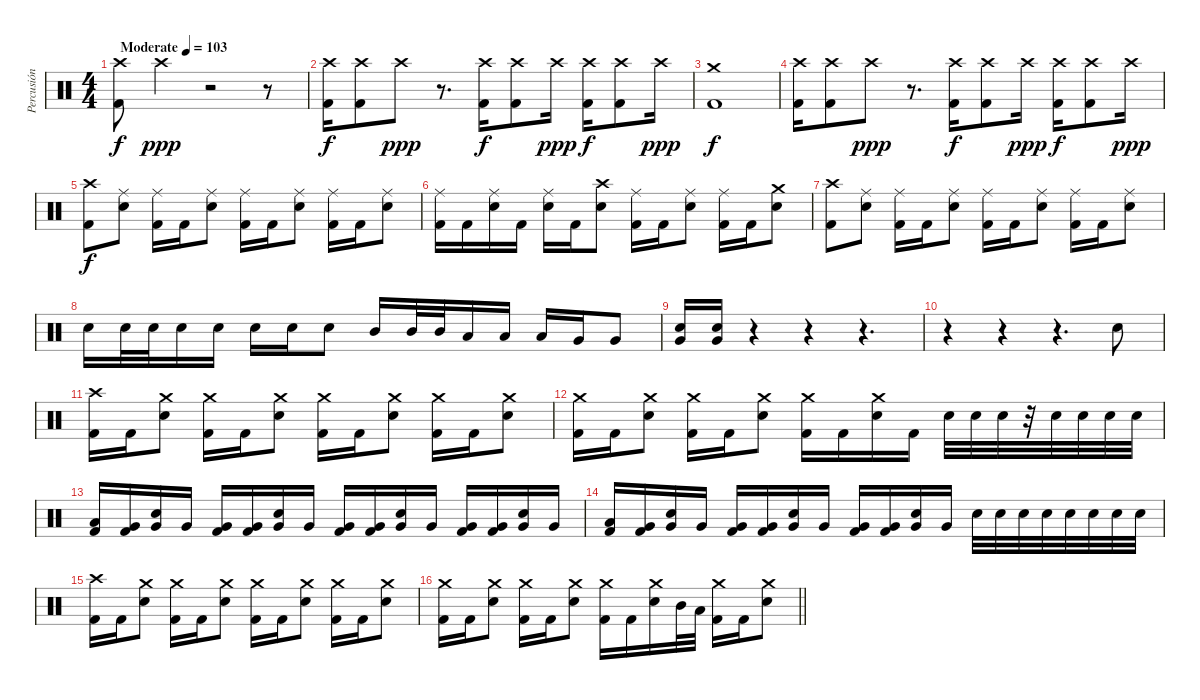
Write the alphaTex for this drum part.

\track ("Percusión" "Percusión") {instrument percussion}
\staff {score}
\articulation defaults
\ts (4 4)
\tempo (103 "Moderate")
\clef neutral
\ks c
("Crash high (hit)" "Kick (hit) 2").8{dy f} "Crash high (hit)".4{dy ppp} r.2 r.8 |
("Crash high (hit)" "Kick (hit) 2").16{dy f} ("Crash high (hit)" "Kick (hit) 2").8 "Crash high (hit)".8{dy ppp} r.8{d} ("Crash high (hit)" "Kick (hit) 2").16{dy f} ("Crash high (hit)" "Kick (hit) 2").8 "Crash high (hit)".16{dy ppp} ("Crash high (hit)" "Kick (hit) 2").16{dy f} ("Crash high (hit)" "Kick (hit) 2").8 "Crash high (hit)".16{dy ppp} |
("Crash medium (hit)" "Kick (hit) 2").1{dy f} |
("Crash high (hit)" "Kick (hit) 2").16 ("Crash high (hit)" "Kick (hit) 2").8 "Crash high (hit)".8{dy ppp} r.8{d} ("Crash high (hit)" "Kick (hit) 2").16{dy f} ("Crash high (hit)" "Kick (hit) 2").8 "Crash high (hit)".16{dy ppp} ("Crash high (hit)" "Kick (hit) 2").16{dy f} ("Crash high (hit)" "Kick (hit) 2").8 "Crash high (hit)".16{dy ppp} |
("Crash high (hit)" "Kick (hit) 2").8{dy f} ("Ride (middle)" "Snare (hit) 2").8 ("Ride (middle)" "Kick (hit) 2").16 "Kick (hit) 2".16 ("Ride (middle)" "Snare (hit) 2").8 ("Ride (middle)" "Kick (hit) 2").16 "Kick (hit) 2".16 ("Ride (middle)" "Snare (hit) 2").8 ("Ride (middle)" "Kick (hit) 2").16 "Kick (hit) 2".16 ("Ride (middle)" "Snare (hit) 2").8 |
("Ride (middle)" "Kick (hit) 2").16 "Kick (hit) 2".16 ("Ride (middle)" "Snare (hit) 2").16 "Kick (hit) 2".16 ("Ride (middle)" "Snare (hit) 2").16 "Kick (hit) 2".16 ("Crash high (hit)" "Snare (hit) 2").8 ("Ride (middle)" "Kick (hit) 2").16 "Kick (hit) 2".16 ("Ride (middle)" "Snare (hit) 2").8 ("Ride (middle)" "Kick (hit) 2").16 "Kick (hit) 2".16 ("Crash medium (hit)" "Snare (hit) 2").8 |
("Crash high (hit)" "Kick (hit) 2").8 ("Ride (middle)" "Snare (hit) 2").8 ("Ride (middle)" "Kick (hit) 2").16 "Kick (hit) 2".16 ("Ride (middle)" "Snare (hit) 2").8 ("Ride (middle)" "Kick (hit) 2").16 "Kick (hit) 2".16 ("Ride (middle)" "Snare (hit) 2").8 ("Ride (middle)" "Kick (hit) 2").16 "Kick (hit) 2".16 ("Ride (middle)" "Snare (hit) 2").8 |
"Snare (hit) 2".16 "Snare (hit) 2".32 "Snare (hit) 2".32 "Snare (hit) 2".16 "Snare (hit) 2".16 "Snare (hit) 2".16 "Snare (hit) 2".16 "Snare (hit) 2".8 "Mid Tom (hit)".16 "Mid Tom (hit)".32 "Mid Tom (hit)".32 "Low Tom (hit)".16 "Low Tom (hit)".16 "Low Tom (hit)".16 "Very Low Tom (hit)".16 "Very Low Tom (hit)".8 |
("Very Low Tom (hit)" "Snare (hit) 2").16 ("Very Low Tom (hit)" "Snare (hit) 2").16 r.4 r.4 r.4{d} |
r.4 r.4 r.4{d} "Snare (hit) 2".8 |
("Crash high (hit)" "Kick (hit) 2").16 "Kick (hit) 2".16 ("Crash medium (hit)" "Snare (hit) 2").8 ("Crash medium (hit)" "Kick (hit) 2").16 "Kick (hit) 2".16 ("Crash medium (hit)" "Snare (hit) 2").8 ("Crash medium (hit)" "Kick (hit) 2").16 "Kick (hit) 2".16 ("Crash medium (hit)" "Snare (hit) 2").8 ("Crash medium (hit)" "Kick (hit) 2").16 "Kick (hit) 2".16 ("Crash medium (hit)" "Snare (hit) 2").8 |
("Crash medium (hit)" "Kick (hit) 2").16 "Kick (hit) 2".16 ("Crash medium (hit)" "Snare (hit) 2").8 ("Crash medium (hit)" "Kick (hit) 2").16 "Kick (hit) 2".16 ("Crash medium (hit)" "Snare (hit) 2").8 ("Crash medium (hit)" "Kick (hit) 2").16 "Kick (hit) 2".16 ("Crash medium (hit)" "Snare (hit) 2").16 "Kick (hit) 2".16 "Snare (hit) 2".32 "Snare (hit) 2".32 "Snare (hit) 2".32 r.32 "Snare (hit) 2".32 "Snare (hit) 2".32 "Snare (hit) 2".32 "Snare (hit) 2".32 |
("Low Tom (hit)" "Kick (hit) 2").16 ("Very Low Tom (hit)" "Kick (hit) 2").16 ("Very Low Tom (hit)" "Snare (hit) 2").16 "Very Low Tom (hit)".16 ("Very Low Tom (hit)" "Kick (hit) 2").16 ("Very Low Tom (hit)" "Kick (hit) 2").16 ("Very Low Tom (hit)" "Snare (hit) 2").16 "Very Low Tom (hit)".16 ("Very Low Tom (hit)" "Kick (hit) 2").16 ("Very Low Tom (hit)" "Kick (hit) 2").16 ("Very Low Tom (hit)" "Snare (hit) 2").16 "Very Low Tom (hit)".16 ("Very Low Tom (hit)" "Kick (hit) 2").16 ("Very Low Tom (hit)" "Kick (hit) 2").16 ("Very Low Tom (hit)" "Snare (hit) 2").16 "Very Low Tom (hit)".16 |
("Low Tom (hit)" "Kick (hit) 2").16 ("Very Low Tom (hit)" "Kick (hit) 2").16 ("Very Low Tom (hit)" "Snare (hit) 2").16 "Very Low Tom (hit)".16 ("Very Low Tom (hit)" "Kick (hit) 2").16 ("Very Low Tom (hit)" "Kick (hit) 2").16 ("Very Low Tom (hit)" "Snare (hit) 2").16 "Very Low Tom (hit)".16 ("Very Low Tom (hit)" "Kick (hit) 2").16 ("Very Low Tom (hit)" "Kick (hit) 2").16 ("Very Low Tom (hit)" "Snare (hit) 2").16 "Very Low Tom (hit)".16 "Snare (hit) 2".32 "Snare (hit) 2".32 "Snare (hit) 2".32 "Snare (hit) 2".32 "Snare (hit) 2".32 "Snare (hit) 2".32 "Snare (hit) 2".32 "Snare (hit) 2".32 |
("Crash high (hit)" "Kick (hit) 2").16 "Kick (hit) 2".16 ("Crash medium (hit)" "Snare (hit) 2").8 ("Crash medium (hit)" "Kick (hit) 2").16 "Kick (hit) 2".16 ("Crash medium (hit)" "Snare (hit) 2").8 ("Crash medium (hit)" "Kick (hit) 2").16 "Kick (hit) 2".16 ("Crash medium (hit)" "Snare (hit) 2").8 ("Crash medium (hit)" "Kick (hit) 2").16 "Kick (hit) 2".16 ("Crash medium (hit)" "Snare (hit) 2").8 |
\barLineRight lightlight
("Crash medium (hit)" "Kick (hit) 2").16 "Kick (hit) 2".16 ("Crash medium (hit)" "Snare (hit) 2").8 ("Crash medium (hit)" "Kick (hit) 2").16 "Kick (hit) 2".16 ("Crash medium (hit)" "Snare (hit) 2").8 ("Crash medium (hit)" "Kick (hit) 2").16 "Kick (hit) 2".16 ("Crash medium (hit)" "Snare (hit) 2").16 "Mid Tom (hit)".32 "Low Tom (hit)".32 ("Crash medium (hit)" "Kick (hit) 2").16 "Kick (hit) 2".16 ("Crash medium (hit)" "Snare (hit) 2").8
